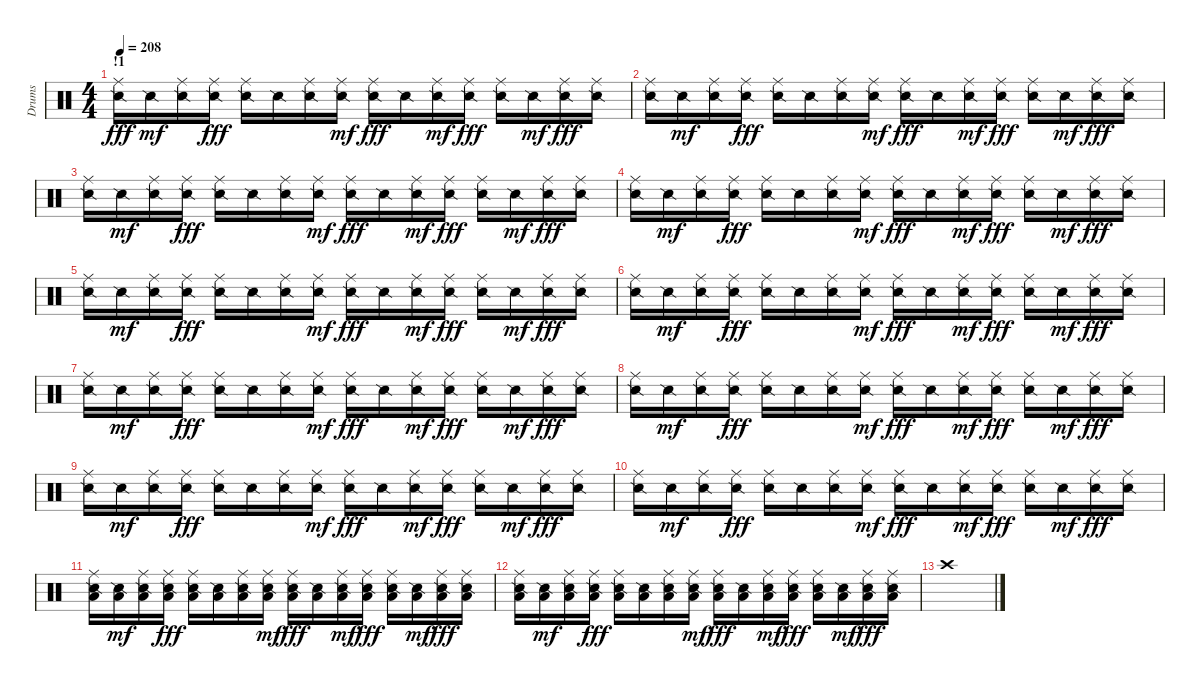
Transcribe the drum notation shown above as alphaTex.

\track ("Drums" "Drums") {instrument percussion}
\staff {score}
\articulation defaults
\ts (4 4)
\section ("" "!1")
\tempo 208
\clef neutral
\ks c
("Ride (middle)" "Snare (side stick) 2").16{dy fff} "Snare (side stick) 2".16{dy mf} ("Ride (middle)" "Snare (side stick) 2").16 ("Ride (middle)" "Snare (side stick) 2").16{dy fff} ("Ride (middle)" "Snare (side stick) 2").16 "Snare (side stick) 2".16 ("Ride (middle)" "Snare (side stick) 2").16 ("Ride (middle)" "Snare (side stick) 2").16{dy mf} ("Ride (middle)" "Snare (side stick) 2").16{dy fff} "Snare (side stick) 2".16 ("Ride (middle)" "Snare (side stick) 2").16{dy mf} ("Ride (middle)" "Snare (side stick) 2").16{dy fff} ("Ride (middle)" "Snare (side stick) 2").16 "Snare (side stick) 2".16{dy mf} ("Ride (middle)" "Snare (side stick) 2").16{dy fff} ("Ride (middle)" "Snare (side stick) 2").16 |
("Ride (middle)" "Snare (side stick) 2").16 "Snare (side stick) 2".16{dy mf} ("Ride (middle)" "Snare (side stick) 2").16 ("Ride (middle)" "Snare (side stick) 2").16{dy fff} ("Ride (middle)" "Snare (side stick) 2").16 "Snare (side stick) 2".16 ("Ride (middle)" "Snare (side stick) 2").16 ("Ride (middle)" "Snare (side stick) 2").16{dy mf} ("Ride (middle)" "Snare (side stick) 2").16{dy fff} "Snare (side stick) 2".16 ("Ride (middle)" "Snare (side stick) 2").16{dy mf} ("Ride (middle)" "Snare (side stick) 2").16{dy fff} ("Ride (middle)" "Snare (side stick) 2").16 "Snare (side stick) 2".16{dy mf} ("Ride (middle)" "Snare (side stick) 2").16{dy fff} ("Ride (middle)" "Snare (side stick) 2").16 |
("Ride (middle)" "Snare (side stick) 2").16 "Snare (side stick) 2".16{dy mf} ("Ride (middle)" "Snare (side stick) 2").16 ("Ride (middle)" "Snare (side stick) 2").16{dy fff} ("Ride (middle)" "Snare (side stick) 2").16 "Snare (side stick) 2".16 ("Ride (middle)" "Snare (side stick) 2").16 ("Ride (middle)" "Snare (side stick) 2").16{dy mf} ("Ride (middle)" "Snare (side stick) 2").16{dy fff} "Snare (side stick) 2".16 ("Ride (middle)" "Snare (side stick) 2").16{dy mf} ("Ride (middle)" "Snare (side stick) 2").16{dy fff} ("Ride (middle)" "Snare (side stick) 2").16 "Snare (side stick) 2".16{dy mf} ("Ride (middle)" "Snare (side stick) 2").16{dy fff} ("Ride (middle)" "Snare (side stick) 2").16 |
("Ride (middle)" "Snare (side stick) 2").16 "Snare (side stick) 2".16{dy mf} ("Ride (middle)" "Snare (side stick) 2").16 ("Ride (middle)" "Snare (side stick) 2").16{dy fff} ("Ride (middle)" "Snare (side stick) 2").16 "Snare (side stick) 2".16 ("Ride (middle)" "Snare (side stick) 2").16 ("Ride (middle)" "Snare (side stick) 2").16{dy mf} ("Ride (middle)" "Snare (side stick) 2").16{dy fff} "Snare (side stick) 2".16 ("Ride (middle)" "Snare (side stick) 2").16{dy mf} ("Ride (middle)" "Snare (side stick) 2").16{dy fff} ("Ride (middle)" "Snare (side stick) 2").16 "Snare (side stick) 2".16{dy mf} ("Ride (middle)" "Snare (side stick) 2").16{dy fff} ("Ride (middle)" "Snare (side stick) 2").16 |
("Ride (middle)" "Snare (side stick) 2").16 "Snare (side stick) 2".16{dy mf} ("Ride (middle)" "Snare (side stick) 2").16 ("Ride (middle)" "Snare (side stick) 2").16{dy fff} ("Ride (middle)" "Snare (side stick) 2").16 "Snare (side stick) 2".16 ("Ride (middle)" "Snare (side stick) 2").16 ("Ride (middle)" "Snare (side stick) 2").16{dy mf} ("Ride (middle)" "Snare (side stick) 2").16{dy fff} "Snare (side stick) 2".16 ("Ride (middle)" "Snare (side stick) 2").16{dy mf} ("Ride (middle)" "Snare (side stick) 2").16{dy fff} ("Ride (middle)" "Snare (side stick) 2").16 "Snare (side stick) 2".16{dy mf} ("Ride (middle)" "Snare (side stick) 2").16{dy fff} ("Ride (middle)" "Snare (side stick) 2").16 |
("Ride (middle)" "Snare (side stick) 2").16 "Snare (side stick) 2".16{dy mf} ("Ride (middle)" "Snare (side stick) 2").16 ("Ride (middle)" "Snare (side stick) 2").16{dy fff} ("Ride (middle)" "Snare (side stick) 2").16 "Snare (side stick) 2".16 ("Ride (middle)" "Snare (side stick) 2").16 ("Ride (middle)" "Snare (side stick) 2").16{dy mf} ("Ride (middle)" "Snare (side stick) 2").16{dy fff} "Snare (side stick) 2".16 ("Ride (middle)" "Snare (side stick) 2").16{dy mf} ("Ride (middle)" "Snare (side stick) 2").16{dy fff} ("Ride (middle)" "Snare (side stick) 2").16 "Snare (side stick) 2".16{dy mf} ("Ride (middle)" "Snare (side stick) 2").16{dy fff} ("Ride (middle)" "Snare (side stick) 2").16 |
("Ride (middle)" "Snare (side stick) 2").16 "Snare (side stick) 2".16{dy mf} ("Ride (middle)" "Snare (side stick) 2").16 ("Ride (middle)" "Snare (side stick) 2").16{dy fff} ("Ride (middle)" "Snare (side stick) 2").16 "Snare (side stick) 2".16 ("Ride (middle)" "Snare (side stick) 2").16 ("Ride (middle)" "Snare (side stick) 2").16{dy mf} ("Ride (middle)" "Snare (side stick) 2").16{dy fff} "Snare (side stick) 2".16 ("Ride (middle)" "Snare (side stick) 2").16{dy mf} ("Ride (middle)" "Snare (side stick) 2").16{dy fff} ("Ride (middle)" "Snare (side stick) 2").16 "Snare (side stick) 2".16{dy mf} ("Ride (middle)" "Snare (side stick) 2").16{dy fff} ("Ride (middle)" "Snare (side stick) 2").16 |
("Ride (middle)" "Snare (side stick) 2").16 "Snare (side stick) 2".16{dy mf} ("Ride (middle)" "Snare (side stick) 2").16 ("Ride (middle)" "Snare (side stick) 2").16{dy fff} ("Ride (middle)" "Snare (side stick) 2").16 "Snare (side stick) 2".16 ("Ride (middle)" "Snare (side stick) 2").16 ("Ride (middle)" "Snare (side stick) 2").16{dy mf} ("Ride (middle)" "Snare (side stick) 2").16{dy fff} "Snare (side stick) 2".16 ("Ride (middle)" "Snare (side stick) 2").16{dy mf} ("Ride (middle)" "Snare (side stick) 2").16{dy fff} ("Ride (middle)" "Snare (side stick) 2").16 "Snare (side stick) 2".16{dy mf} ("Ride (middle)" "Snare (side stick) 2").16{dy fff} ("Ride (middle)" "Snare (side stick) 2").16 |
("Ride (middle)" "Snare (side stick) 2").16 "Snare (side stick) 2".16{dy mf} ("Ride (middle)" "Snare (side stick) 2").16 ("Ride (middle)" "Snare (side stick) 2").16{dy fff} ("Ride (middle)" "Snare (side stick) 2").16 "Snare (side stick) 2".16 ("Ride (middle)" "Snare (side stick) 2").16 ("Ride (middle)" "Snare (side stick) 2").16{dy mf} ("Ride (middle)" "Snare (side stick) 2").16{dy fff} "Snare (side stick) 2".16 ("Ride (middle)" "Snare (side stick) 2").16{dy mf} ("Ride (middle)" "Snare (side stick) 2").16{dy fff} ("Ride (middle)" "Snare (side stick) 2").16 "Snare (side stick) 2".16{dy mf} ("Ride (middle)" "Snare (side stick) 2").16{dy fff} ("Ride (middle)" "Snare (side stick) 2").16 |
("Ride (middle)" "Snare (side stick) 2").16 "Snare (side stick) 2".16{dy mf} ("Ride (middle)" "Snare (side stick) 2").16 ("Ride (middle)" "Snare (side stick) 2").16{dy fff} ("Ride (middle)" "Snare (side stick) 2").16 "Snare (side stick) 2".16 ("Ride (middle)" "Snare (side stick) 2").16 ("Ride (middle)" "Snare (side stick) 2").16{dy mf} ("Ride (middle)" "Snare (side stick) 2").16{dy fff} "Snare (side stick) 2".16 ("Ride (middle)" "Snare (side stick) 2").16{dy mf} ("Ride (middle)" "Snare (side stick) 2").16{dy fff} ("Ride (middle)" "Snare (side stick) 2").16 "Snare (side stick) 2".16{dy mf} ("Ride (middle)" "Snare (side stick) 2").16{dy fff} ("Ride (middle)" "Snare (side stick) 2").16 |
("Ride (middle)" "Low Tom (hit)" "Snare (side stick) 2").16 ("Low Tom (hit)" "Snare (side stick) 2").16{dy mf} ("Ride (middle)" "Low Tom (hit)" "Snare (side stick) 2").16 ("Ride (middle)" "Low Tom (hit)" "Snare (side stick) 2").16{dy fff} ("Ride (middle)" "Low Tom (hit)" "Snare (side stick) 2").16 ("Low Tom (hit)" "Snare (side stick) 2").16 ("Ride (middle)" "Low Tom (hit)" "Snare (side stick) 2").16 ("Ride (middle)" "Low Tom (hit)" "Snare (side stick) 2").16{dy mf} ("Ride (middle)" "Low Tom (hit)" "Snare (side stick) 2").16{dy fff} ("Low Tom (hit)" "Snare (side stick) 2").16 ("Ride (middle)" "Low Tom (hit)" "Snare (side stick) 2").16{dy mf} ("Ride (middle)" "Low Tom (hit)" "Snare (side stick) 2").16{dy fff} ("Ride (middle)" "Low Tom (hit)" "Snare (side stick) 2").16 ("Low Tom (hit)" "Snare (side stick) 2").16{dy mf} ("Ride (middle)" "Low Tom (hit)" "Snare (side stick) 2").16{dy fff} ("Ride (middle)" "Low Tom (hit)" "Snare (side stick) 2").16 |
("Ride (middle)" "Low Tom (hit)" "Snare (side stick) 2").16 ("Low Tom (hit)" "Snare (side stick) 2").16{dy mf} ("Ride (middle)" "Low Tom (hit)" "Snare (side stick) 2").16 ("Ride (middle)" "Low Tom (hit)" "Snare (side stick) 2").16{dy fff} ("Ride (middle)" "Low Tom (hit)" "Snare (side stick) 2").16 ("Low Tom (hit)" "Snare (side stick) 2").16 ("Ride (middle)" "Low Tom (hit)" "Snare (side stick) 2").16 ("Ride (middle)" "Low Tom (hit)" "Snare (side stick) 2").16{dy mf} ("Ride (middle)" "Low Tom (hit)" "Snare (side stick) 2").16{dy fff} ("Low Tom (hit)" "Snare (side stick) 2").16 ("Ride (middle)" "Low Tom (hit)" "Snare (side stick) 2").16{dy mf} ("Ride (middle)" "Low Tom (hit)" "Snare (side stick) 2").16{dy fff} ("Ride (middle)" "Low Tom (hit)" "Snare (side stick) 2").16 ("Low Tom (hit)" "Snare (side stick) 2").16{dy mf} ("Ride (middle)" "Low Tom (hit)" "Snare (side stick) 2").16{dy fff} ("Ride (middle)" "Low Tom (hit)" "Snare (side stick) 2").16 |
"Crash high (hit)".1
